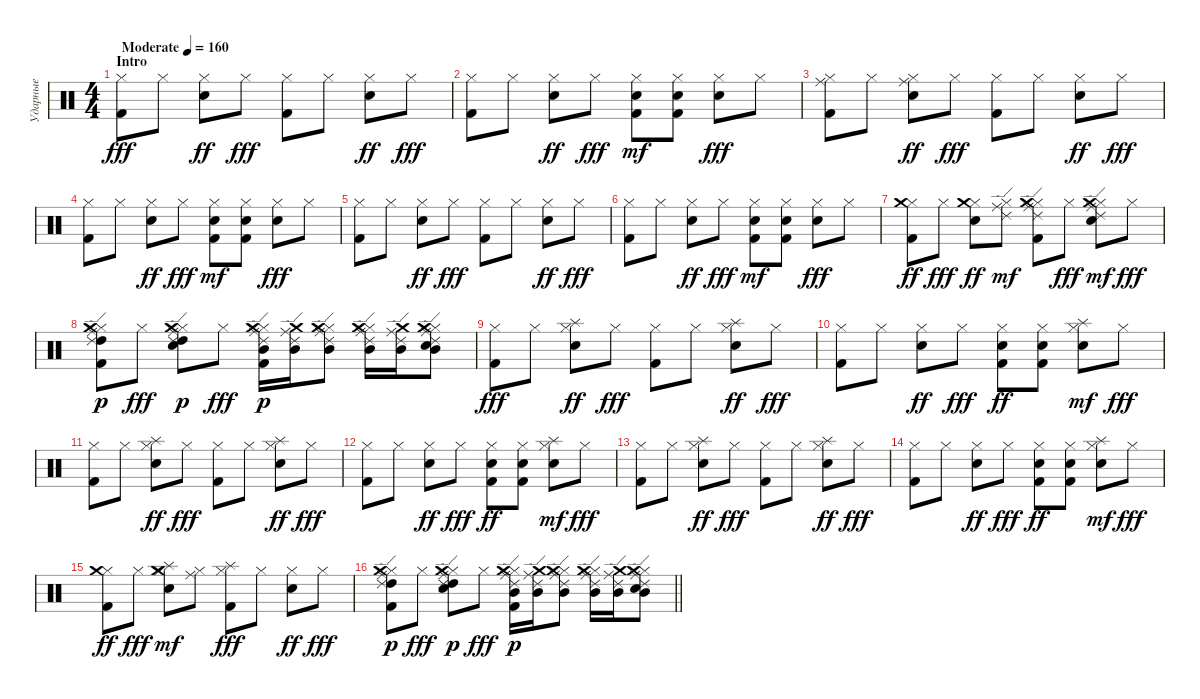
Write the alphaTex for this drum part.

\track ("Ударные" "Ударные") {instrument percussion}
\staff {score}
\articulation defaults
\ts (4 4)
\section ("" "Intro")
\tempo (160 "Moderate")
\clef neutral
\ks c
("Hi-Hat (closed)" "Kick (hit) 2").8{dy fff} "Hi-Hat (closed)".8 ("Hi-Hat (closed)" "Snare (hit) 2").8{dy ff} "Hi-Hat (closed)".8{dy fff} ("Hi-Hat (closed)" "Kick (hit) 2").8 "Hi-Hat (closed)".8 ("Hi-Hat (closed)" "Snare (hit) 2").8{dy ff} "Hi-Hat (closed)".8{dy fff} |
("Hi-Hat (closed)" "Kick (hit) 2").8 "Hi-Hat (closed)".8 ("Hi-Hat (closed)" "Snare (hit) 2").8{dy ff} "Hi-Hat (closed)".8{dy fff} ("Hi-Hat (closed)" "Kick (hit) 2" "Electric Snare (hit)").8{dy mf} ("Hi-Hat (closed)" "Kick (hit) 2" "Electric Snare (hit)").8 ("Hi-Hat (closed)" "Snare (hit) 2").8{dy fff} "Hi-Hat (closed)".8 |
("Hi-Hat (closed)" "Kick (hit) 2" "Ride (middle)").8 "Hi-Hat (closed)".8 ("Hi-Hat (closed)" "Snare (hit) 2" "Ride (middle)").8{dy ff} "Hi-Hat (closed)".8{dy fff} ("Hi-Hat (closed)" "Kick (hit) 2").8 "Hi-Hat (closed)".8 ("Hi-Hat (closed)" "Snare (hit) 2").8{dy ff} "Hi-Hat (closed)".8{dy fff} |
("Hi-Hat (closed)" "Kick (hit) 2").8 "Hi-Hat (closed)".8 ("Hi-Hat (closed)" "Snare (hit) 2").8{dy ff} "Hi-Hat (closed)".8{dy fff} ("Hi-Hat (closed)" "Kick (hit) 2" "Electric Snare (hit)").8{dy mf} ("Hi-Hat (closed)" "Kick (hit) 2" "Electric Snare (hit)").8 ("Hi-Hat (closed)" "Snare (hit) 2").8{dy fff} "Hi-Hat (closed)".8 |
("Hi-Hat (closed)" "Kick (hit) 2").8 "Hi-Hat (closed)".8 ("Hi-Hat (closed)" "Snare (hit) 2").8{dy ff} "Hi-Hat (closed)".8{dy fff} ("Hi-Hat (closed)" "Kick (hit) 2").8 "Hi-Hat (closed)".8 ("Hi-Hat (closed)" "Snare (hit) 2").8{dy ff} "Hi-Hat (closed)".8{dy fff} |
("Hi-Hat (closed)" "Kick (hit) 2").8 "Hi-Hat (closed)".8 ("Hi-Hat (closed)" "Snare (hit) 2").8{dy ff} "Hi-Hat (closed)".8{dy fff} ("Hi-Hat (closed)" "Kick (hit) 2" "Electric Snare (hit)").8{dy mf} ("Hi-Hat (closed)" "Kick (hit) 2" "Electric Snare (hit)").8 ("Hi-Hat (closed)" "Snare (hit) 2").8{dy fff} "Hi-Hat (closed)".8 |
("Hi-Hat (closed)" "Kick (hit) 2" "Crash medium (hit)").8{dy ff} "Hi-Hat (closed)".8{dy fff} ("Hi-Hat (closed)" "Snare (hit) 2" "Crash medium (hit)").8{dy ff} ("Hi-Hat (closed)" "Ride (middle)" "Ride (edge) 2").8{dy mf} ("Hi-Hat (closed)" "Kick (hit) 2" "Ride (middle)" "Ride (edge) 2" "Crash medium (hit)").8 "Hi-Hat (closed)".8{dy fff} ("Hi-Hat (closed)" "Snare (hit) 2" "Ride (middle)" "Ride (edge) 2" "Crash medium (hit)").8{dy mf} "Hi-Hat (closed)".8{dy fff} |
("Hi-Hat (closed)" "Kick (hit) 2" "High Tom (hit)" "Ride (middle)" "Ride (edge) 2" "Crash medium (hit)").8{dy p} "Hi-Hat (closed)".8{dy fff} ("Hi-Hat (closed)" "Snare (hit) 2" "High Tom (hit)" "Ride (middle)" "Ride (edge) 2" "Crash medium (hit)").8{dy p} "Hi-Hat (closed)".8{dy fff} ("Hi-Hat (closed)" "Kick (hit) 2" "Mid Tom (hit)" "Ride (middle)" "Ride (edge) 2" "Crash medium (hit)").16{dy p} ("Mid Tom (hit)" "Ride (middle)" "Ride (edge) 2" "Crash medium (hit)").16 ("Hi-Hat (closed)" "Mid Tom (hit)" "Ride (middle)" "Ride (edge) 2" "Crash medium (hit)").8 ("Hi-Hat (closed)" "Mid Tom (hit)" "Ride (middle)" "Ride (edge) 2" "Crash medium (hit)").16 ("Mid Tom (hit)" "Ride (middle)" "Ride (edge) 2" "Crash medium (hit)").16 ("Hi-Hat (closed)" "Snare (hit) 2" "Mid Tom (hit)" "Ride (middle)" "Ride (edge) 2" "Crash medium (hit)").8 |
("Hi-Hat (closed)" "Kick (hit) 2").8{dy fff} "Hi-Hat (closed)".8 ("Hi-Hat (closed)" "Snare (hit) 2" "Splash (hit)").8{dy ff} "Hi-Hat (closed)".8{dy fff} ("Hi-Hat (closed)" "Kick (hit) 2").8 "Hi-Hat (closed)".8 ("Hi-Hat (closed)" "Snare (hit) 2" "Splash (hit)").8{dy ff} "Hi-Hat (closed)".8{dy fff} |
("Hi-Hat (closed)" "Kick (hit) 2").8 "Hi-Hat (closed)".8 ("Hi-Hat (closed)" "Snare (hit) 2").8{dy ff} "Hi-Hat (closed)".8{dy fff} ("Hi-Hat (closed)" "Kick (hit) 2" "Electric Snare (hit)").8{dy ff} ("Hi-Hat (closed)" "Kick (hit) 2" "Electric Snare (hit)").8 ("Hi-Hat (closed)" "Snare (hit) 2" "Splash (hit)").8{dy mf} "Hi-Hat (closed)".8{dy fff} |
("Hi-Hat (closed)" "Kick (hit) 2").8 "Hi-Hat (closed)".8 ("Hi-Hat (closed)" "Snare (hit) 2" "Splash (hit)").8{dy ff} "Hi-Hat (closed)".8{dy fff} ("Hi-Hat (closed)" "Kick (hit) 2").8 "Hi-Hat (closed)".8 ("Hi-Hat (closed)" "Snare (hit) 2" "Splash (hit)").8{dy ff} "Hi-Hat (closed)".8{dy fff} |
("Hi-Hat (closed)" "Kick (hit) 2").8 "Hi-Hat (closed)".8 ("Hi-Hat (closed)" "Snare (hit) 2").8{dy ff} "Hi-Hat (closed)".8{dy fff} ("Hi-Hat (closed)" "Kick (hit) 2" "Electric Snare (hit)").8{dy ff} ("Hi-Hat (closed)" "Kick (hit) 2" "Electric Snare (hit)").8 ("Hi-Hat (closed)" "Snare (hit) 2" "Splash (hit)").8{dy mf} "Hi-Hat (closed)".8{dy fff} |
("Hi-Hat (closed)" "Kick (hit) 2").8 "Hi-Hat (closed)".8 ("Hi-Hat (closed)" "Snare (hit) 2" "Splash (hit)").8{dy ff} "Hi-Hat (closed)".8{dy fff} ("Hi-Hat (closed)" "Kick (hit) 2").8 "Hi-Hat (closed)".8 ("Hi-Hat (closed)" "Snare (hit) 2" "Splash (hit)").8{dy ff} "Hi-Hat (closed)".8{dy fff} |
("Hi-Hat (closed)" "Kick (hit) 2").8 "Hi-Hat (closed)".8 ("Hi-Hat (closed)" "Snare (hit) 2").8{dy ff} "Hi-Hat (closed)".8{dy fff} ("Hi-Hat (closed)" "Kick (hit) 2" "Electric Snare (hit)").8{dy ff} ("Hi-Hat (closed)" "Kick (hit) 2" "Electric Snare (hit)").8 ("Hi-Hat (closed)" "Snare (hit) 2" "Splash (hit)").8{dy mf} "Hi-Hat (closed)".8{dy fff} |
("Hi-Hat (closed)" "Kick (hit) 2" "Crash medium (hit)").8{dy ff} "Hi-Hat (closed)".8{dy fff} ("Hi-Hat (closed)" "Snare (hit) 2" "Crash medium (hit)" "Splash (hit)").8{dy mf} ("Hi-Hat (closed)" "Ride (middle)").8 ("Hi-Hat (closed)" "Kick (hit) 2" "Splash (hit)").8{dy fff} "Hi-Hat (closed)".8 ("Hi-Hat (closed)" "Snare (hit) 2").8{dy ff} "Hi-Hat (closed)".8{dy fff} |
\barLineRight lightlight
("Hi-Hat (closed)" "Kick (hit) 2" "High Tom (hit)" "Ride (middle)" "Ride (edge) 2" "Crash medium (hit)").8{dy p} "Hi-Hat (closed)".8{dy fff} ("Hi-Hat (closed)" "Snare (hit) 2" "High Tom (hit)" "Ride (middle)" "Ride (edge) 2" "Crash medium (hit)").8{dy p} "Hi-Hat (closed)".8{dy fff} ("Hi-Hat (closed)" "Kick (hit) 2" "Mid Tom (hit)" "Ride (middle)" "Ride (edge) 2" "Crash medium (hit)").16{dy p} ("Mid Tom (hit)" "Ride (middle)" "Ride (edge) 2" "Crash medium (hit)").16 ("Hi-Hat (closed)" "Mid Tom (hit)" "Ride (middle)" "Ride (edge) 2" "Crash medium (hit)").8 ("Hi-Hat (closed)" "Mid Tom (hit)" "Ride (middle)" "Ride (edge) 2" "Crash medium (hit)").16 ("Mid Tom (hit)" "Ride (middle)" "Ride (edge) 2" "Crash medium (hit)").16 ("Hi-Hat (closed)" "Snare (hit) 2" "Mid Tom (hit)" "Ride (middle)" "Ride (edge) 2" "Crash medium (hit)").8
